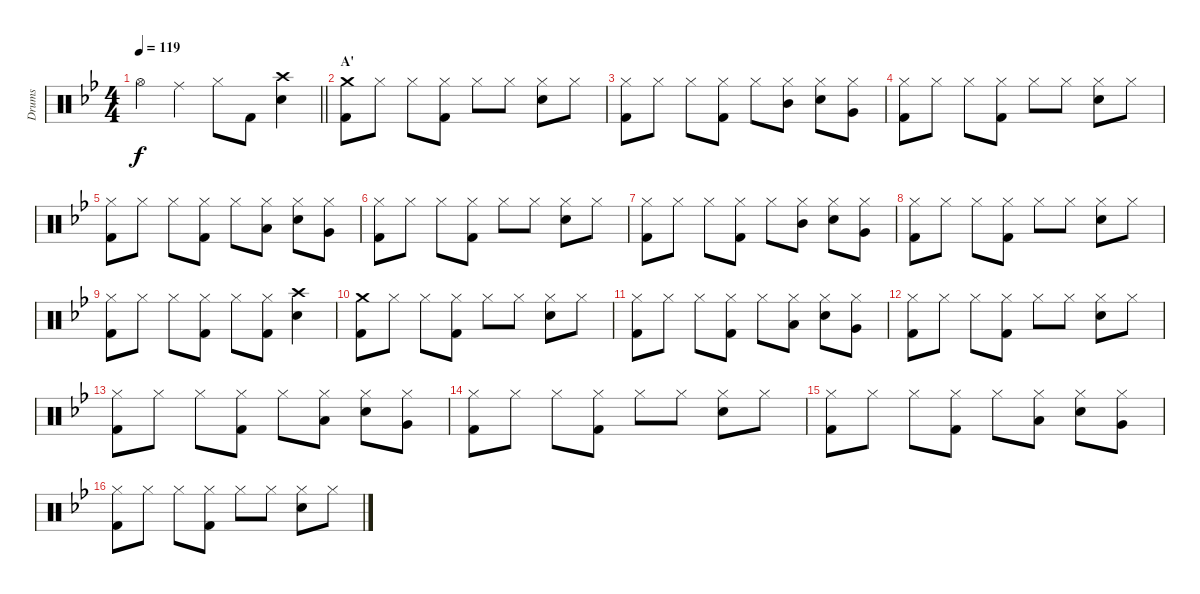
\track ("Drums" "Drums") {instrument percussion}
\staff {score}
\articulation defaults
\ts (4 4)
\tempo 119
\clef neutral
\barLineRight lightlight
\ks bb "Hi-Hat (open)".4{dy f} "Ride (middle)".4 "Hi-Hat (closed)".8 "Kick (hit) 2".8
("Crash high (hit)" "Snare (hit) 2").4 |
\section ("" "A'")
("Crash medium (hit)" "Kick (hit) 2").8 "Hi-Hat (closed)".8 "Hi-Hat (closed)".8 ("Hi-Hat (closed)" "Kick (hit) 2").8 "Hi-Hat (closed)".8 "Hi-Hat (closed)".8 ("Hi-Hat (closed)" "Snare (hit) 2").8 "Hi-Hat (closed)".8 |
("Hi-Hat (closed)" "Kick (hit) 2").8 "Hi-Hat (closed)".8 "Hi-Hat (closed)".8 ("Hi-Hat (closed)" "Kick (hit) 2").8 "Hi-Hat (closed)".8 ("Mid Tom (hit)" "Hi-Hat (closed)").8 ("Hi-Hat (closed)" "Snare (hit) 2").8 ("Very Low Tom (hit)" "Hi-Hat (closed)").8 |
("Hi-Hat (closed)" "Kick (hit) 2").8 "Hi-Hat (closed)".8 "Hi-Hat (closed)".8 ("Hi-Hat (closed)" "Kick (hit) 2").8 "Hi-Hat (closed)".8 "Hi-Hat (closed)".8 ("Hi-Hat (closed)" "Snare (hit) 2").8 "Hi-Hat (closed)".8 |
("Hi-Hat (closed)" "Kick (hit) 2").8 "Hi-Hat (closed)".8 "Hi-Hat (closed)".8 ("Hi-Hat (closed)" "Kick (hit) 2").8 "Hi-Hat (closed)".8 ("Low Tom (hit)" "Hi-Hat (closed)").8 ("Hi-Hat (closed)" "Snare (hit) 2").8 ("Very Low Tom (hit)" "Hi-Hat (closed)").8 |
("Hi-Hat (closed)" "Kick (hit) 2").8 "Hi-Hat (closed)".8 "Hi-Hat (closed)".8 ("Hi-Hat (closed)" "Kick (hit) 2").8 "Hi-Hat (closed)".8 "Hi-Hat (closed)".8 ("Hi-Hat (closed)" "Snare (hit) 2").8 "Hi-Hat (closed)".8 |
("Hi-Hat (closed)" "Kick (hit) 2").8 "Hi-Hat (closed)".8 "Hi-Hat (closed)".8 ("Hi-Hat (closed)" "Kick (hit) 2").8 "Hi-Hat (closed)".8 ("Mid Tom (hit)" "Hi-Hat (closed)").8 ("Hi-Hat (closed)" "Snare (hit) 2").8 ("Very Low Tom (hit)" "Hi-Hat (closed)").8 |
("Hi-Hat (closed)" "Kick (hit) 2").8 "Hi-Hat (closed)".8 "Hi-Hat (closed)".8 ("Hi-Hat (closed)" "Kick (hit) 2").8 "Hi-Hat (closed)".8 "Hi-Hat (closed)".8 ("Hi-Hat (closed)" "Snare (hit) 2").8 "Hi-Hat (closed)".8 |
("Hi-Hat (closed)" "Kick (hit) 2").8 "Hi-Hat (closed)".8 "Hi-Hat (closed)".8 ("Hi-Hat (closed)" "Kick (hit) 2").8 "Hi-Hat (closed)".8 ("Hi-Hat (closed)" "Kick (hit) 2").8 ("Crash high (hit)" "Snare (hit) 2").4 |
("Crash medium (hit)" "Kick (hit) 2").8 "Hi-Hat (closed)".8 "Hi-Hat (closed)".8 ("Hi-Hat (closed)" "Kick (hit) 2").8 "Hi-Hat (closed)".8 "Hi-Hat (closed)".8 ("Hi-Hat (closed)" "Snare (hit) 2").8 "Hi-Hat (closed)".8 |
("Hi-Hat (closed)" "Kick (hit) 2").8 "Hi-Hat (closed)".8 "Hi-Hat (closed)".8 ("Hi-Hat (closed)" "Kick (hit) 2").8 "Hi-Hat (closed)".8 ("Low Tom (hit)" "Hi-Hat (closed)").8 ("Hi-Hat (closed)" "Snare (hit) 2").8 ("Very Low Tom (hit)" "Hi-Hat (closed)").8 |
("Hi-Hat (closed)" "Kick (hit) 2").8 "Hi-Hat (closed)".8 "Hi-Hat (closed)".8 ("Hi-Hat (closed)" "Kick (hit) 2").8 "Hi-Hat (closed)".8 "Hi-Hat (closed)".8 ("Hi-Hat (closed)" "Snare (hit) 2").8 "Hi-Hat (closed)".8 |
("Hi-Hat (closed)" "Kick (hit) 2").8 "Hi-Hat (closed)".8 "Hi-Hat (closed)".8 ("Hi-Hat (closed)" "Kick (hit) 2").8 "Hi-Hat (closed)".8 ("Low Tom (hit)" "Hi-Hat (closed)").8 ("Hi-Hat (closed)" "Snare (hit) 2").8 ("Very Low Tom (hit)" "Hi-Hat (closed)").8 |
("Hi-Hat (closed)" "Kick (hit) 2").8 "Hi-Hat (closed)".8 "Hi-Hat (closed)".8 ("Hi-Hat (closed)" "Kick (hit) 2").8 "Hi-Hat (closed)".8 "Hi-Hat (closed)".8 ("Hi-Hat (closed)" "Snare (hit) 2").8 "Hi-Hat (closed)".8 |
("Hi-Hat (closed)" "Kick (hit) 2").8 "Hi-Hat (closed)".8 "Hi-Hat (closed)".8 ("Hi-Hat (closed)" "Kick (hit) 2").8 "Hi-Hat (closed)".8 ("Low Tom (hit)" "Hi-Hat (closed)").8 ("Hi-Hat (closed)" "Snare (hit) 2").8 ("Very Low Tom (hit)" "Hi-Hat (closed)").8 |
("Hi-Hat (closed)" "Kick (hit) 2").8 "Hi-Hat (closed)".8 "Hi-Hat (closed)".8 ("Hi-Hat (closed)" "Kick (hit) 2").8 "Hi-Hat (closed)".8 "Hi-Hat (closed)".8 ("Hi-Hat (closed)" "Snare (hit) 2").8 "Hi-Hat (closed)".8
